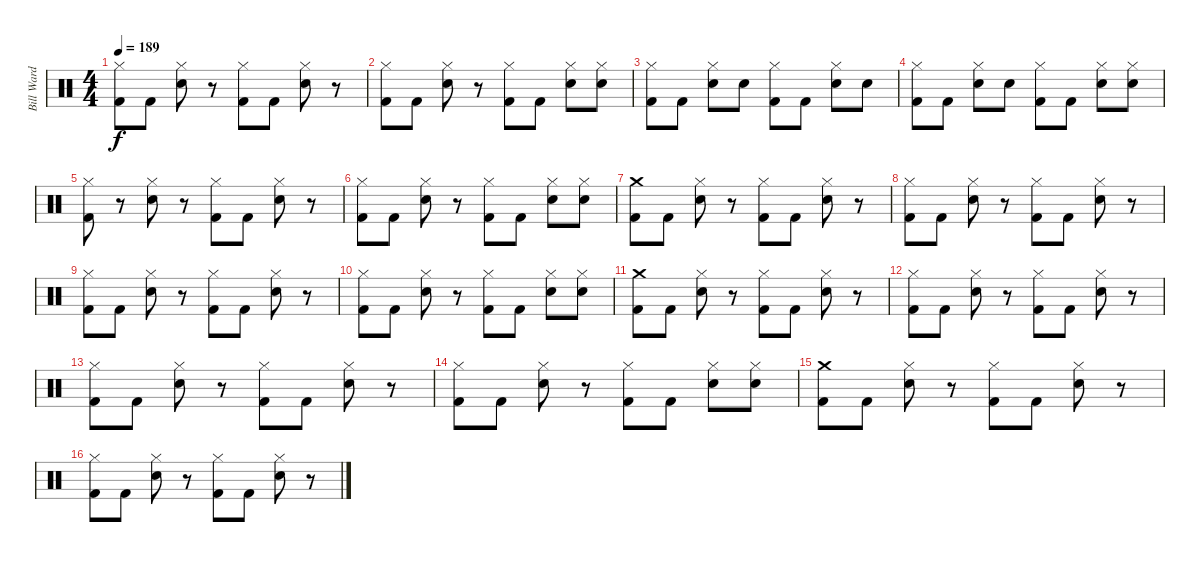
\track ("Bill Ward" "Bill Ward") {instrument percussion}
\staff {score}
\articulation defaults
\ts (4 4)
\tempo 189
\clef neutral
\ks c
("Hi-Hat (closed)" "Kick (hit) 2").8{dy f} "Kick (hit) 2".8 ("Hi-Hat (closed)" "Electric Snare (hit)").8 r.8 ("Kick (hit) 2" "Hi-Hat (closed)").8 "Kick (hit) 2".8 ("Hi-Hat (closed)" "Electric Snare (hit)").8 r.8 |
("Hi-Hat (closed)" "Kick (hit) 2").8 "Kick (hit) 2".8 ("Hi-Hat (closed)" "Electric Snare (hit)").8 r.8 ("Kick (hit) 2" "Hi-Hat (closed)").8 "Kick (hit) 2".8 ("Hi-Hat (closed)" "Electric Snare (hit)").8 ("Hi-Hat (closed)" "Electric Snare (hit)").8 |
("Hi-Hat (closed)" "Kick (hit) 2").8 "Kick (hit) 2".8 ("Hi-Hat (closed)" "Electric Snare (hit)").8 "Electric Snare (hit)".8 ("Kick (hit) 2" "Hi-Hat (closed)").8 "Kick (hit) 2".8 ("Electric Snare (hit)" "Hi-Hat (closed)").8 "Electric Snare (hit)".8 |
("Hi-Hat (closed)" "Kick (hit) 2").8 "Kick (hit) 2".8 ("Hi-Hat (closed)" "Electric Snare (hit)").8 "Electric Snare (hit)".8 ("Hi-Hat (closed)" "Kick (hit) 2").8 "Kick (hit) 2".8 ("Hi-Hat (closed)" "Electric Snare (hit)").8 ("Hi-Hat (closed)" "Electric Snare (hit)").8 |
("Hi-Hat (closed)" "Kick (hit) 2").8 r.8 ("Hi-Hat (closed)" "Electric Snare (hit)").8 r.8 ("Hi-Hat (closed)" "Kick (hit) 2").8 "Kick (hit) 2".8 ("Electric Snare (hit)" "Hi-Hat (closed)").8 r.8 |
("Kick (hit) 2" "Hi-Hat (closed)").8 "Kick (hit) 2".8 ("Hi-Hat (closed)" "Electric Snare (hit)").8 r.8 ("Kick (hit) 2" "Hi-Hat (closed)").8 "Kick (hit) 2".8 ("Hi-Hat (closed)" "Electric Snare (hit)").8 ("Hi-Hat (closed)" "Electric Snare (hit)").8 |
("Kick (hit) 2" "Crash medium (hit)").8 "Kick (hit) 2".8 ("Hi-Hat (closed)" "Electric Snare (hit)").8 r.8 ("Hi-Hat (closed)" "Kick (hit) 2").8 "Kick (hit) 2".8 ("Electric Snare (hit)" "Hi-Hat (closed)").8 r.8 |
("Hi-Hat (closed)" "Kick (hit) 2").8 "Kick (hit) 2".8 ("Electric Snare (hit)" "Hi-Hat (closed)").8 r.8 ("Hi-Hat (closed)" "Kick (hit) 2").8 "Kick (hit) 2".8 ("Electric Snare (hit)" "Hi-Hat (closed)").8 r.8 |
("Kick (hit) 2" "Hi-Hat (closed)").8 "Kick (hit) 2".8 ("Hi-Hat (closed)" "Electric Snare (hit)").8 r.8 ("Hi-Hat (closed)" "Kick (hit) 2").8 "Kick (hit) 2".8 ("Hi-Hat (closed)" "Electric Snare (hit)").8 r.8 |
("Hi-Hat (closed)" "Kick (hit) 2").8 "Kick (hit) 2".8 ("Hi-Hat (closed)" "Electric Snare (hit)").8 r.8 ("Hi-Hat (closed)" "Kick (hit) 2").8 "Kick (hit) 2".8 ("Hi-Hat (closed)" "Electric Snare (hit)").8 ("Hi-Hat (closed)" "Electric Snare (hit)").8 |
("Kick (hit) 2" "Crash medium (hit)").8 "Kick (hit) 2".8 ("Hi-Hat (closed)" "Electric Snare (hit)").8 r.8 ("Kick (hit) 2" "Hi-Hat (closed)").8 "Kick (hit) 2".8 ("Hi-Hat (closed)" "Electric Snare (hit)").8 r.8 |
("Hi-Hat (closed)" "Kick (hit) 2").8 "Kick (hit) 2".8 ("Electric Snare (hit)" "Hi-Hat (closed)").8 r.8 ("Kick (hit) 2" "Hi-Hat (closed)").8 "Kick (hit) 2".8 ("Hi-Hat (closed)" "Electric Snare (hit)").8 r.8 |
("Kick (hit) 2" "Hi-Hat (closed)").8 "Kick (hit) 2".8 ("Hi-Hat (closed)" "Electric Snare (hit)").8 r.8 ("Hi-Hat (closed)" "Kick (hit) 2").8 "Kick (hit) 2".8 ("Electric Snare (hit)" "Hi-Hat (closed)").8 r.8 |
("Hi-Hat (closed)" "Kick (hit) 2").8 "Kick (hit) 2".8 ("Hi-Hat (closed)" "Electric Snare (hit)").8 r.8 ("Hi-Hat (closed)" "Kick (hit) 2").8 "Kick (hit) 2".8 ("Electric Snare (hit)" "Hi-Hat (closed)").8 ("Hi-Hat (closed)" "Electric Snare (hit)").8 |
("Kick (hit) 2" "Crash medium (hit)").8 "Kick (hit) 2".8 ("Electric Snare (hit)" "Hi-Hat (closed)").8 r.8 ("Hi-Hat (closed)" "Kick (hit) 2").8 "Kick (hit) 2".8 ("Electric Snare (hit)" "Hi-Hat (closed)").8 r.8 |
("Hi-Hat (closed)" "Kick (hit) 2").8 "Kick (hit) 2".8 ("Hi-Hat (closed)" "Electric Snare (hit)").8 r.8 ("Kick (hit) 2" "Hi-Hat (closed)").8 "Kick (hit) 2".8 ("Hi-Hat (closed)" "Electric Snare (hit)").8 r.8
